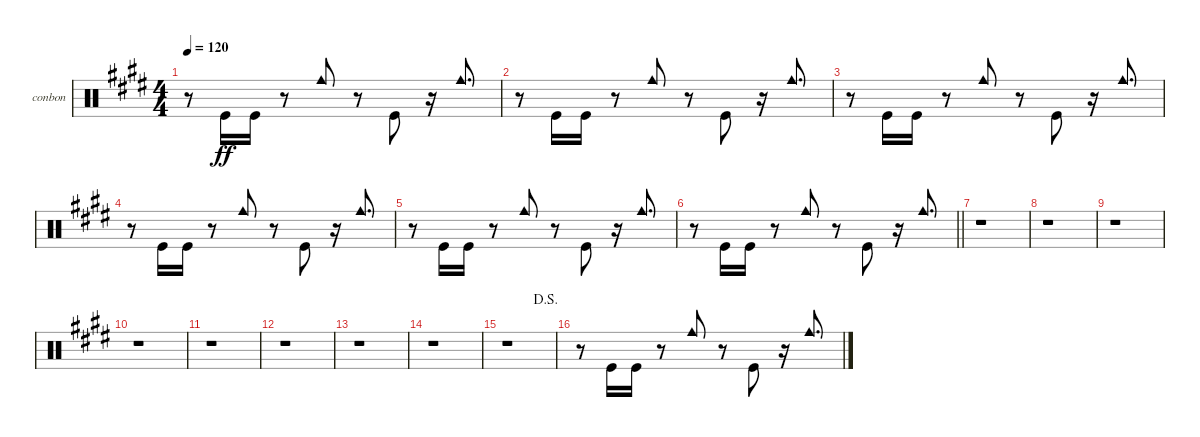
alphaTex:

\defaultSystemsLayout 4
\bracketExtendMode groupsimilarinstruments
\firstSystemTrackNameOrientation horizontal
\otherSystemsTrackNameOrientation horizontal
\track ("Bongos N Congas" "conbon") {instrument percussion}
\staff {score}
\articulation defaults
\ts (4 4)
\tempo 120
\clef neutral
\scale
0.333333
\ks e
r.8{dy ff beam invert} "Kick (hit)".16{beam invert} "Kick (hit)".16 r.8{beam invert} "Cowbell medium (hit)".8{beam invert} r.8{beam invert} "Kick (hit)".8{beam invert} r.16{beam invert} "Cowbell medium (hit)".8{d beam invert} |
\scale
0.333333 r.8{beam invert} "Kick (hit)".16{beam invert} "Kick (hit)".16 r.8{beam invert} "Cowbell medium (hit)".8{beam invert} r.8{beam invert} "Kick (hit)".8{beam invert} r.16{beam invert} "Cowbell medium (hit)".8{d beam invert} |
\scale
0.333333 r.8{beam invert} "Kick (hit)".16{beam invert} "Kick (hit)".16 r.8{beam invert} "Cowbell medium (hit)".8{beam invert} r.8{beam invert} "Kick (hit)".8{beam invert} r.16{beam invert} "Cowbell medium (hit)".8{d beam invert} |
\scale
0.333333 r.8{beam invert} "Kick (hit)".16{beam invert} "Kick (hit)".16 r.8{beam invert} "Cowbell medium (hit)".8{beam invert} r.8{beam invert} "Kick (hit)".8{beam invert} r.16{beam invert} "Cowbell medium (hit)".8{d beam invert} |
\scale
0.333333 r.8{beam invert} "Kick (hit)".16{beam invert} "Kick (hit)".16 r.8{beam invert} "Cowbell medium (hit)".8{beam invert} r.8{beam invert} "Kick (hit)".8{beam invert} r.16{beam invert} "Cowbell medium (hit)".8{d beam invert} |
\scale
0.333333
\barLineRight lightlight
r.8{beam invert} "Kick (hit)".16{beam invert} "Kick (hit)".16 r.8{beam invert} "Cowbell medium (hit)".8{beam invert} r.8{beam invert} "Kick (hit)".8{beam invert} r.16{beam invert} "Cowbell medium (hit)".8{d beam invert} |
\scale
0.333333 r.1 |
\scale
0.333333 r.1 |
\scale
0.333333 r.1 |
\scale
0.333333 r.1 |
\scale
0.333333 r.1 |
\scale
0.333333 r.1 |
\scale
0.333333 r.1 |
\scale
0.333333 r.1 |
\jump dalsegno
\scale
0.333333 r.1 |
\scale
0.333333 r.8{beam invert} "Kick (hit)".16{beam invert} "Kick (hit)".16 r.8{beam invert} "Cowbell medium (hit)".8{beam invert} r.8{beam invert} "Kick (hit)".8{beam invert} r.16{beam invert} "Cowbell medium (hit)".8{d beam invert}
